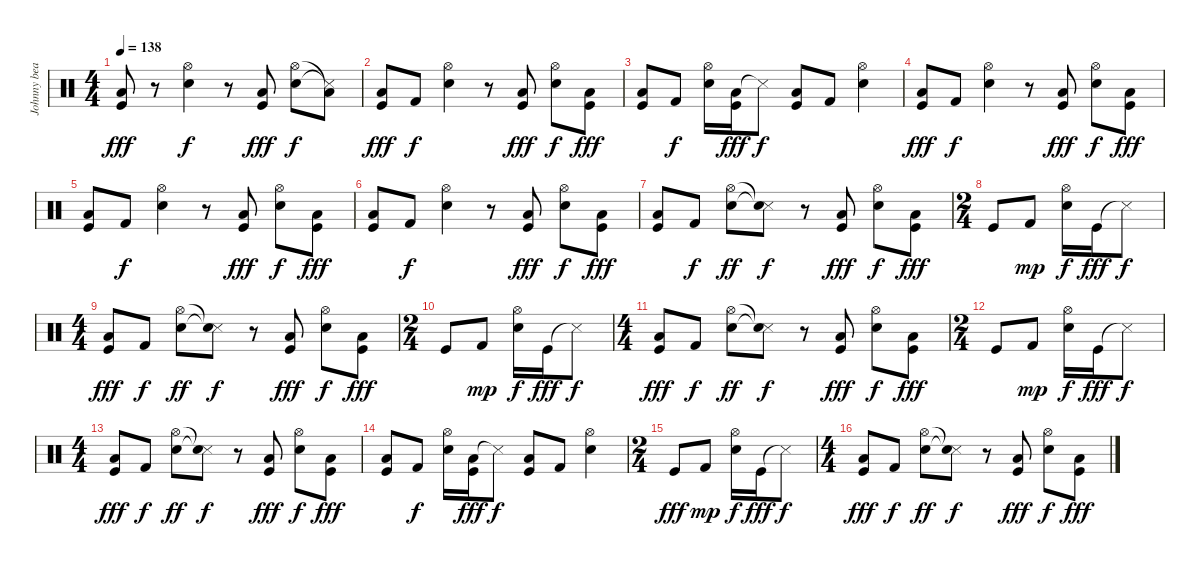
\track ("Johnny beat" "Johnny bea") {instrument percussion}
\staff {score}
\articulation defaults
\ts (4 4)
\tempo 138
\clef neutral
\ks c
("Low Tom (hit)" "Kick (hit)").8{dy fff} r.8 ("Electric Snare (hit)" "Hi-Hat (open)").4{dy f} r.8 ("Low Tom (hit)" "Kick (hit)").8{dy fff} ("Electric Snare (hit)" "Hi-Hat (open)").8{dy f} ("Snare (side stick) 3"{t} "Low Tom (hit)"{t}).8 |
("Low Tom (hit)" "Kick (hit)").8{dy fff} "Kick (hit) 2".8{dy f} ("Electric Snare (hit)" "Hi-Hat (open)").4 r.8 ("Low Tom (hit)" "Kick (hit)").8{dy fff} ("Electric Snare (hit)" "Hi-Hat (open)").8{dy f} ("Low Tom (hit)" "Kick (hit)").8{dy fff} |
("Low Tom (hit)" "Kick (hit)").8 "Kick (hit) 2".8{dy f} ("Electric Snare (hit)" "Hi-Hat (open)").16 ("Low Tom (hit)" "Kick (hit)").16{dy fff} "Snare (side stick) 3"{t}.8{dy f} ("Kick (hit)" "Low Tom (hit)").8 "Kick (hit) 2".8 ("Electric Snare (hit)" "Hi-Hat (open)").4 |
("Low Tom (hit)" "Kick (hit)").8{dy fff} "Kick (hit) 2".8{dy f} ("Electric Snare (hit)" "Hi-Hat (open)").4 r.8 ("Low Tom (hit)" "Kick (hit)").8{dy fff} ("Electric Snare (hit)" "Hi-Hat (open)").8{dy f} ("Low Tom (hit)" "Kick (hit)").8{dy fff} |
("Low Tom (hit)" "Kick (hit)").8 "Kick (hit) 2".8{dy f} ("Electric Snare (hit)" "Hi-Hat (open)").4 r.8 ("Low Tom (hit)" "Kick (hit)").8{dy fff} ("Electric Snare (hit)" "Hi-Hat (open)").8{dy f} ("Low Tom (hit)" "Kick (hit)").8{dy fff} |
("Low Tom (hit)" "Kick (hit)").8 "Kick (hit) 2".8{dy f} ("Electric Snare (hit)" "Hi-Hat (open)").4 r.8 ("Low Tom (hit)" "Kick (hit)").8{dy fff} ("Electric Snare (hit)" "Hi-Hat (open)").8{dy f} ("Low Tom (hit)" "Kick (hit)").8{dy fff} |
("Low Tom (hit)" "Kick (hit)").8 "Kick (hit) 2".8{dy f} ("Electric Snare (hit)" "Hi-Hat (open)").8{dy ff} ("Snare (side stick) 3"{t} "Snare (hit)"{t}).8{dy f} r.8 ("Low Tom (hit)" "Kick (hit)").8{dy fff} ("Electric Snare (hit)" "Hi-Hat (open)").8{dy f} ("Low Tom (hit)" "Kick (hit)").8{dy fff} |
\ts (2 4)
"Kick (hit)".8 "Kick (hit) 2".8{dy mp} ("Electric Snare (hit)" "Hi-Hat (open)").16{dy f} "Kick (hit)".16{dy fff} "Snare (side stick) 3"{t}.8{dy f} |
\ts (4 4)
("Low Tom (hit)" "Kick (hit)").8{dy fff} "Kick (hit) 2".8{dy f} ("Electric Snare (hit)" "Hi-Hat (open)").8{dy ff} ("Snare (side stick) 3"{t} "Snare (hit)"{t}).8{dy f} r.8 ("Low Tom (hit)" "Kick (hit)").8{dy fff} ("Electric Snare (hit)" "Hi-Hat (open)").8{dy f} ("Low Tom (hit)" "Kick (hit)").8{dy fff} |
\ts (2 4)
"Kick (hit)".8 "Kick (hit) 2".8{dy mp} ("Electric Snare (hit)" "Hi-Hat (open)").16{dy f} "Kick (hit)".16{dy fff} "Snare (side stick) 3"{t}.8{dy f} |
\ts (4 4)
("Low Tom (hit)" "Kick (hit)").8{dy fff} "Kick (hit) 2".8{dy f} ("Electric Snare (hit)" "Hi-Hat (open)").8{dy ff} ("Snare (side stick) 3"{t} "Snare (hit)"{t}).8{dy f} r.8 ("Low Tom (hit)" "Kick (hit)").8{dy fff} ("Electric Snare (hit)" "Hi-Hat (open)").8{dy f} ("Low Tom (hit)" "Kick (hit)").8{dy fff} |
\ts (2 4)
"Kick (hit)".8 "Kick (hit) 2".8{dy mp} ("Electric Snare (hit)" "Hi-Hat (open)").16{dy f} "Kick (hit)".16{dy fff} "Snare (side stick) 3"{t}.8{dy f} |
\ts (4 4)
("Low Tom (hit)" "Kick (hit)").8{dy fff} "Kick (hit) 2".8{dy f} ("Electric Snare (hit)" "Hi-Hat (open)").8{dy ff} ("Snare (side stick) 3"{t} "Snare (hit)"{t}).8{dy f} r.8 ("Low Tom (hit)" "Kick (hit)").8{dy fff} ("Electric Snare (hit)" "Hi-Hat (open)").8{dy f} ("Low Tom (hit)" "Kick (hit)").8{dy fff} |
("Low Tom (hit)" "Kick (hit)").8 "Kick (hit) 2".8{dy f} ("Electric Snare (hit)" "Hi-Hat (open)").16 ("Low Tom (hit)" "Kick (hit)").16{dy fff} "Snare (side stick) 3"{t}.8{dy f} ("Kick (hit)" "Low Tom (hit)").8 "Kick (hit) 2".8 ("Electric Snare (hit)" "Hi-Hat (open)").4 |
\ts (2 4)
"Kick (hit)".8{dy fff} "Kick (hit) 2".8{dy mp} ("Electric Snare (hit)" "Hi-Hat (open)").16{dy f} "Kick (hit)".16{dy fff} "Snare (side stick) 3"{t}.8{dy f} |
\ts (4 4)
("Low Tom (hit)" "Kick (hit)").8{dy fff} "Kick (hit) 2".8{dy f} ("Electric Snare (hit)" "Hi-Hat (open)").8{dy ff} ("Snare (side stick) 3"{t} "Snare (hit)"{t}).8{dy f} r.8 ("Low Tom (hit)" "Kick (hit)").8{dy fff} ("Electric Snare (hit)" "Hi-Hat (open)").8{dy f} ("Low Tom (hit)" "Kick (hit)").8{dy fff}
